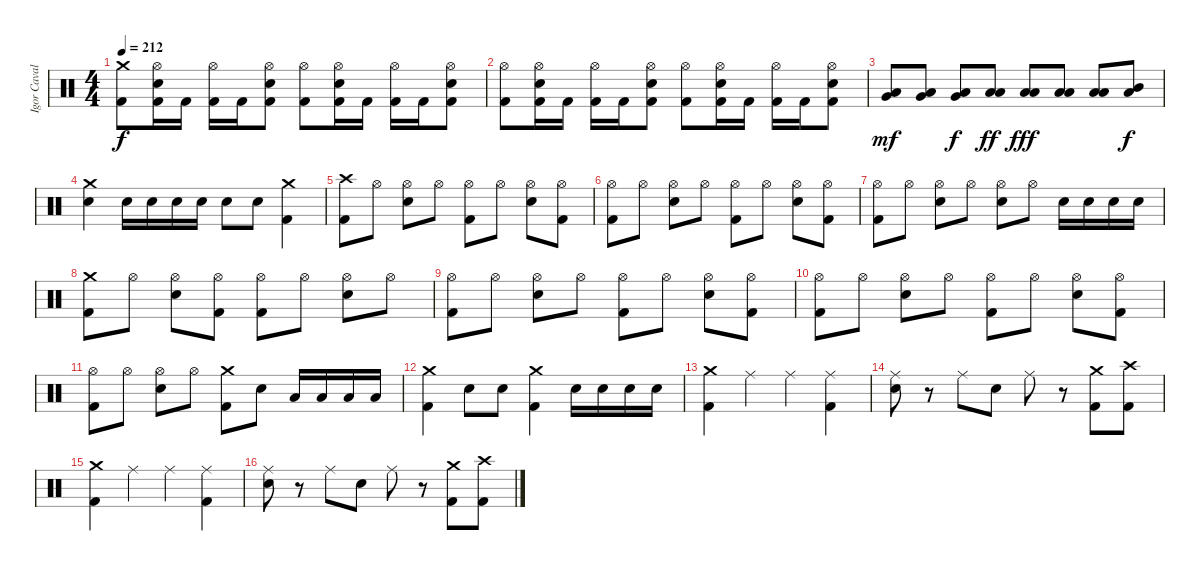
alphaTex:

\track ("Igor Cavalera" "Igor Caval") {instrument percussion}
\staff {score}
\articulation defaults
\ts (4 4)
\tempo 212
\clef neutral
\ks c
("Crash medium (hit)" "Kick (hit) 2").8{dy f} ("Hi-Hat (open)" "Snare (hit) 2" "Kick (hit) 2").16 "Kick (hit) 2".16 ("Hi-Hat (open)" "Kick (hit) 2").16 "Kick (hit) 2".16 ("Hi-Hat (open)" "Snare (hit) 2" "Kick (hit) 2").8 ("Hi-Hat (open)" "Kick (hit) 2").8 ("Hi-Hat (open)" "Snare (hit) 2" "Kick (hit) 2").16 "Kick (hit) 2".16 ("Hi-Hat (open)" "Kick (hit) 2").16 "Kick (hit) 2".16 ("Hi-Hat (open)" "Snare (hit) 2" "Kick (hit) 2").8 |
("Hi-Hat (open)" "Kick (hit) 2").8 ("Hi-Hat (open)" "Snare (hit) 2" "Kick (hit) 2").16 "Kick (hit) 2".16 ("Hi-Hat (open)" "Kick (hit) 2").16 "Kick (hit) 2".16 ("Hi-Hat (open)" "Snare (hit) 2" "Kick (hit) 2").8 ("Hi-Hat (open)" "Kick (hit) 2").8 ("Hi-Hat (open)" "Snare (hit) 2" "Kick (hit) 2").16 "Kick (hit) 2".16 ("Hi-Hat (open)" "Kick (hit) 2").16 "Kick (hit) 2".16 ("Hi-Hat (open)" "Snare (hit) 2" "Kick (hit) 2").8 |
("Very Low Tom (hit)" "Low Tom (hit)").8{dy mf} ("Very Low Tom (hit)" "Low Tom (hit)").8 ("Very Low Tom (hit)" "Low Tom (hit)").8{dy f} ("Low Tom (hit)" "Low Tom (hit)").8{dy ff} ("Low Tom (hit)" "Low Tom (hit)").8{dy fff} ("Low Tom (hit)" "Low Tom (hit)").8 ("Low Tom (hit)" "Low Tom (hit)").8 ("Mid Tom (hit)" "Low Tom (hit)").8{dy f} |
("Crash medium (hit)" "Snare (hit) 2").4 "Snare (hit) 2".16 "Snare (hit) 2".16 "Snare (hit) 2".16 "Snare (hit) 2".16 "Snare (hit) 2".8 "Snare (hit) 2".8 ("Crash medium (hit)" "Kick (hit) 2").4 |
("Kick (hit) 2" "Crash high (hit)").8 "Hi-Hat (open)".8 ("Snare (hit) 2" "Hi-Hat (open)").8 "Hi-Hat (open)".8 ("Kick (hit) 2" "Hi-Hat (open)").8 "Hi-Hat (open)".8 ("Snare (hit) 2" "Hi-Hat (open)").8 ("Kick (hit) 2" "Hi-Hat (open)").8 |
("Kick (hit) 2" "Hi-Hat (open)").8 "Hi-Hat (open)".8 ("Snare (hit) 2" "Hi-Hat (open)").8 "Hi-Hat (open)".8 ("Kick (hit) 2" "Hi-Hat (open)").8 "Hi-Hat (open)".8 ("Snare (hit) 2" "Hi-Hat (open)").8 ("Kick (hit) 2" "Hi-Hat (open)").8 |
("Kick (hit) 2" "Hi-Hat (open)").8 "Hi-Hat (open)".8 ("Snare (hit) 2" "Hi-Hat (open)").8 "Hi-Hat (open)".8 ("Snare (hit) 2" "Hi-Hat (open)").8 "Hi-Hat (open)".8 "Snare (hit) 2".16 "Snare (hit) 2".16 "Snare (hit) 2".16 "Snare (hit) 2".16 |
("Crash medium (hit)" "Kick (hit) 2").8 "Hi-Hat (open)".8 ("Snare (hit) 2" "Hi-Hat (open)").8 ("Kick (hit) 2" "Hi-Hat (open)").8 ("Kick (hit) 2" "Hi-Hat (open)").8 "Hi-Hat (open)".8 ("Snare (hit) 2" "Hi-Hat (open)").8 "Hi-Hat (open)".8 |
("Kick (hit) 2" "Hi-Hat (open)").8 "Hi-Hat (open)".8 ("Snare (hit) 2" "Hi-Hat (open)").8 "Hi-Hat (open)".8 ("Kick (hit) 2" "Hi-Hat (open)").8 "Hi-Hat (open)".8 ("Snare (hit) 2" "Hi-Hat (open)").8 ("Kick (hit) 2" "Hi-Hat (open)").8 |
("Kick (hit) 2" "Hi-Hat (open)").8 "Hi-Hat (open)".8 ("Snare (hit) 2" "Hi-Hat (open)").8 "Hi-Hat (open)".8 ("Kick (hit) 2" "Hi-Hat (open)").8 "Hi-Hat (open)".8 ("Snare (hit) 2" "Hi-Hat (open)").8 ("Kick (hit) 2" "Hi-Hat (open)").8 |
("Kick (hit) 2" "Hi-Hat (open)").8 "Hi-Hat (open)".8 ("Snare (hit) 2" "Hi-Hat (open)").8 "Hi-Hat (open)".8 ("Kick (hit) 2" "Crash medium (hit)").8 "Snare (hit) 2".8 "Low Tom (hit)".16 "Low Tom (hit)".16 "Low Tom (hit)".16 "Low Tom (hit)".16 |
("Crash medium (hit)" "Kick (hit) 2").4 "Snare (hit) 2".8 "Snare (hit) 2".8 ("Crash medium (hit)" "Kick (hit) 2").4 "Snare (hit) 2".16 "Snare (hit) 2".16 "Snare (hit) 2".16 "Snare (hit) 2".16 |
("Kick (hit) 2" "Crash medium (hit)").4 "Ride (middle)".4 "Ride (middle)".4 ("Kick (hit) 2" "Ride (middle)").4 |
("Snare (hit) 2" "Ride (middle)").8 r.8 "Ride (middle)".8 "Snare (hit) 2".8 "Ride (middle)".8 r.8 ("Crash medium (hit)" "Kick (hit) 2").8 ("Crash high (hit)" "Kick (hit) 2").8 |
("Kick (hit) 2" "Crash medium (hit)").4 "Ride (middle)".4 "Ride (middle)".4 ("Kick (hit) 2" "Ride (middle)").4 |
("Snare (hit) 2" "Ride (middle)").8 r.8 "Ride (middle)".8 "Snare (hit) 2".8 "Ride (middle)".8 r.8 ("Crash medium (hit)" "Kick (hit) 2").8 ("Crash high (hit)" "Kick (hit) 2").8
